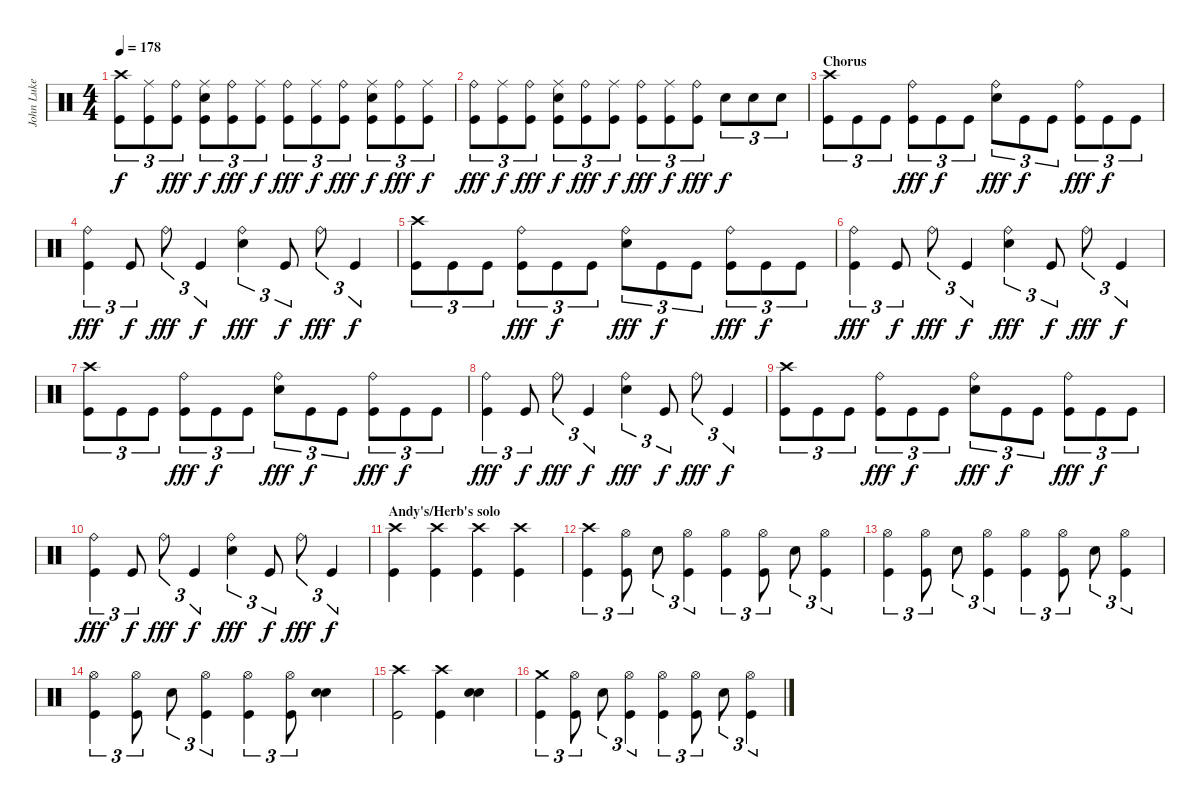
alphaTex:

\track ("John Luke (Drums)" "John Luke ") {instrument percussion}
\staff {score}
\articulation defaults
\ts (4 4)
\tempo 178
\clef neutral
\ks c
("Crash high (hit)" "Kick (hit)").8{tu (3 2) dy f} ("Ride (middle)" "Kick (hit)").8{tu (3 2)} ("Ride (bell)" "Kick (hit)").8{tu (3 2) dy fff} ("Ride (middle)" "Electric Snare (hit)" "Kick (hit)").8{tu (3 2) dy f} ("Ride (bell)" "Kick (hit)").8{tu (3 2) dy fff} ("Ride (middle)" "Kick (hit)").8{tu (3 2) dy f} ("Ride (bell)" "Kick (hit)").8{tu (3 2) dy fff} ("Ride (middle)" "Kick (hit)").8{tu (3 2) dy f} ("Ride (bell)" "Kick (hit)").8{tu (3 2) dy fff} ("Ride (middle)" "Electric Snare (hit)" "Kick (hit)").8{tu (3 2) dy f} ("Ride (bell)" "Kick (hit)").8{tu (3 2) dy fff} ("Ride (middle)" "Kick (hit)").8{tu (3 2) dy f} |
("Ride (bell)" "Kick (hit)").8{tu (3 2) dy fff} ("Ride (middle)" "Kick (hit)").8{tu (3 2) dy f} ("Ride (bell)" "Kick (hit)").8{tu (3 2) dy fff} ("Ride (middle)" "Electric Snare (hit)" "Kick (hit)").8{tu (3 2) dy f} ("Ride (bell)" "Kick (hit)").8{tu (3 2) dy fff} ("Ride (middle)" "Kick (hit)").8{tu (3 2) dy f} ("Ride (bell)" "Kick (hit)").8{tu (3 2) dy fff} ("Ride (middle)" "Kick (hit)").8{tu (3 2) dy f} ("Ride (bell)" "Kick (hit)").8{tu (3 2) dy fff} "Electric Snare (hit)".8{tu (3 2) dy f} "Electric Snare (hit)".8{tu (3 2)} "Electric Snare (hit)".8{tu (3 2)} |
\section ("" "Chorus")
("Crash high (hit)" "Kick (hit)").8{tu (3 2)} "Kick (hit)".8{tu (3 2)} "Kick (hit)".8{tu (3 2)} ("Ride (bell)" "Kick (hit)").8{tu (3 2) dy fff} "Kick (hit)".8{tu (3 2) dy f} "Kick (hit)".8{tu (3 2)} ("Ride (bell)" "Electric Snare (hit)").8{tu (3 2) dy fff} "Kick (hit)".8{tu (3 2) dy f} "Kick (hit)".8{tu (3 2)} ("Ride (bell)" "Kick (hit)").8{tu (3 2) dy fff} "Kick (hit)".8{tu (3 2) dy f} "Kick (hit)".8{tu (3 2)} |
("Ride (bell)" "Kick (hit)").4{tu (3 2) dy fff} "Kick (hit)".8{tu (3 2) dy f} "Ride (bell)".8{tu (3 2) dy fff} "Kick (hit)".4{tu (3 2) dy f} ("Ride (bell)" "Electric Snare (hit)").4{tu (3 2) dy fff} "Kick (hit)".8{tu (3 2) dy f} "Ride (bell)".8{tu (3 2) dy fff} "Kick (hit)".4{tu (3 2) dy f} |
("Crash high (hit)" "Kick (hit)").8{tu (3 2)} "Kick (hit)".8{tu (3 2)} "Kick (hit)".8{tu (3 2)} ("Ride (bell)" "Kick (hit)").8{tu (3 2) dy fff} "Kick (hit)".8{tu (3 2) dy f} "Kick (hit)".8{tu (3 2)} ("Ride (bell)" "Electric Snare (hit)").8{tu (3 2) dy fff} "Kick (hit)".8{tu (3 2) dy f} "Kick (hit)".8{tu (3 2)} ("Ride (bell)" "Kick (hit)").8{tu (3 2) dy fff} "Kick (hit)".8{tu (3 2) dy f} "Kick (hit)".8{tu (3 2)} |
("Ride (bell)" "Kick (hit)").4{tu (3 2) dy fff} "Kick (hit)".8{tu (3 2) dy f} "Ride (bell)".8{tu (3 2) dy fff} "Kick (hit)".4{tu (3 2) dy f} ("Ride (bell)" "Electric Snare (hit)").4{tu (3 2) dy fff} "Kick (hit)".8{tu (3 2) dy f} "Ride (bell)".8{tu (3 2) dy fff} "Kick (hit)".4{tu (3 2) dy f} |
("Crash high (hit)" "Kick (hit)").8{tu (3 2)} "Kick (hit)".8{tu (3 2)} "Kick (hit)".8{tu (3 2)} ("Ride (bell)" "Kick (hit)").8{tu (3 2) dy fff} "Kick (hit)".8{tu (3 2) dy f} "Kick (hit)".8{tu (3 2)} ("Ride (bell)" "Electric Snare (hit)").8{tu (3 2) dy fff} "Kick (hit)".8{tu (3 2) dy f} "Kick (hit)".8{tu (3 2)} ("Ride (bell)" "Kick (hit)").8{tu (3 2) dy fff} "Kick (hit)".8{tu (3 2) dy f} "Kick (hit)".8{tu (3 2)} |
("Ride (bell)" "Kick (hit)").4{tu (3 2) dy fff} "Kick (hit)".8{tu (3 2) dy f} "Ride (bell)".8{tu (3 2) dy fff} "Kick (hit)".4{tu (3 2) dy f} ("Ride (bell)" "Electric Snare (hit)").4{tu (3 2) dy fff} "Kick (hit)".8{tu (3 2) dy f} "Ride (bell)".8{tu (3 2) dy fff} "Kick (hit)".4{tu (3 2) dy f} |
("Crash high (hit)" "Kick (hit)").8{tu (3 2)} "Kick (hit)".8{tu (3 2)} "Kick (hit)".8{tu (3 2)} ("Ride (bell)" "Kick (hit)").8{tu (3 2) dy fff} "Kick (hit)".8{tu (3 2) dy f} "Kick (hit)".8{tu (3 2)} ("Ride (bell)" "Electric Snare (hit)").8{tu (3 2) dy fff} "Kick (hit)".8{tu (3 2) dy f} "Kick (hit)".8{tu (3 2)} ("Ride (bell)" "Kick (hit)").8{tu (3 2) dy fff} "Kick (hit)".8{tu (3 2) dy f} "Kick (hit)".8{tu (3 2)} |
("Ride (bell)" "Kick (hit)").4{tu (3 2) dy fff} "Kick (hit)".8{tu (3 2) dy f} "Ride (bell)".8{tu (3 2) dy fff} "Kick (hit)".4{tu (3 2) dy f} ("Ride (bell)" "Electric Snare (hit)").4{tu (3 2) dy fff} "Kick (hit)".8{tu (3 2) dy f} "Ride (bell)".8{tu (3 2) dy fff} "Kick (hit)".4{tu (3 2) dy f} |
\section ("" "Andy's/Herb's solo")
("Crash high (hit)" "Kick (hit)").4 ("Crash high (hit)" "Kick (hit)").4 ("Crash high (hit)" "Kick (hit)").4 ("Crash high (hit)" "Kick (hit)").4 |
("Crash high (hit)" "Kick (hit)").4{tu (3 2)} ("Hi-Hat (open)" "Kick (hit)").8{tu (3 2)} "Electric Snare (hit)".8{tu (3 2)} ("Hi-Hat (open)" "Kick (hit)").4{tu (3 2)} ("Hi-Hat (open)" "Kick (hit)").4{tu (3 2)} ("Hi-Hat (open)" "Kick (hit)").8{tu (3 2)} "Electric Snare (hit)".8{tu (3 2)} ("Hi-Hat (open)" "Kick (hit)").4{tu (3 2)} |
("Hi-Hat (open)" "Kick (hit)").4{tu (3 2)} ("Hi-Hat (open)" "Kick (hit)").8{tu (3 2)} "Electric Snare (hit)".8{tu (3 2)} ("Hi-Hat (open)" "Kick (hit)").4{tu (3 2)} ("Hi-Hat (open)" "Kick (hit)").4{tu (3 2)} ("Hi-Hat (open)" "Kick (hit)").8{tu (3 2)} "Electric Snare (hit)".8{tu (3 2)} ("Hi-Hat (open)" "Kick (hit)").4{tu (3 2)} |
("Hi-Hat (open)" "Kick (hit)").4{tu (3 2)} ("Hi-Hat (open)" "Kick (hit)").8{tu (3 2)} "Electric Snare (hit)".8{tu (3 2)} ("Hi-Hat (open)" "Kick (hit)").4{tu (3 2)} ("Hi-Hat (open)" "Kick (hit)").4{tu (3 2)} ("Hi-Hat (open)" "Kick (hit)").8{tu (3 2)} ("Electric Snare (hit)" "Electric Snare (hit)").4{bu 240} |
("Crash high (hit)" "Kick (hit)").2 ("Crash high (hit)" "Kick (hit)").4 ("Electric Snare (hit)" "Electric Snare (hit)").4{bu 240} |
("Crash medium (hit)" "Kick (hit)").4{tu (3 2)} ("Hi-Hat (open)" "Kick (hit)").8{tu (3 2)} "Electric Snare (hit)".8{tu (3 2)} ("Hi-Hat (open)" "Kick (hit)").4{tu (3 2)} ("Hi-Hat (open)" "Kick (hit)").4{tu (3 2)} ("Hi-Hat (open)" "Kick (hit)").8{tu (3 2)} "Electric Snare (hit)".8{tu (3 2)} ("Hi-Hat (open)" "Kick (hit)").4{tu (3 2)}
